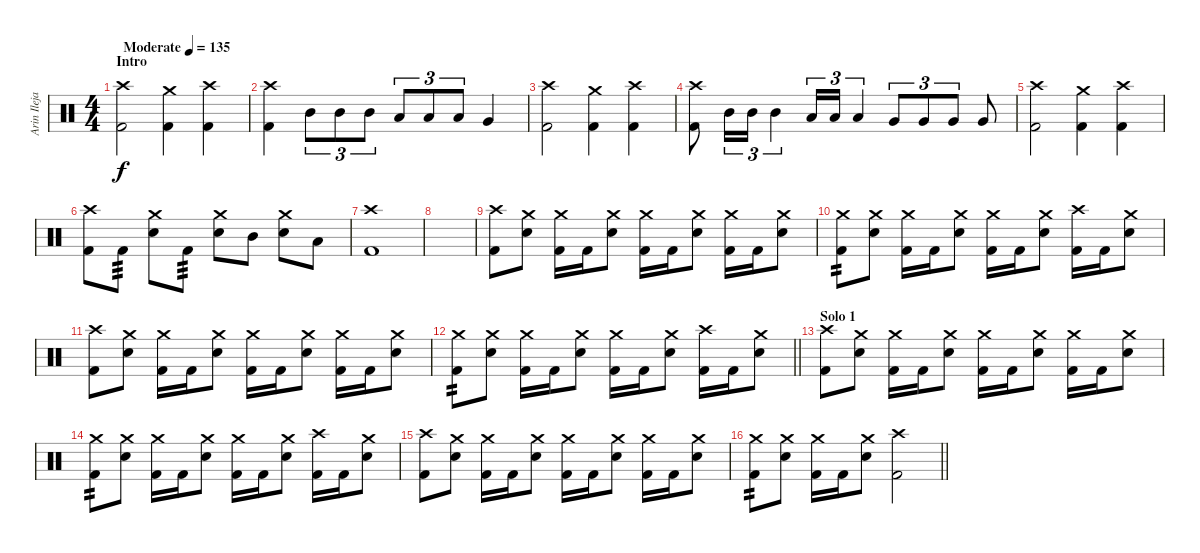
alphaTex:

\track ("Arin Ilejay" "Arin Ileja") {instrument percussion}
\staff {score}
\articulation defaults
\ts (4 4)
\section ("" "Intro")
\tempo (135 "Moderate")
\clef neutral
\ks c
("Crash high (hit)" "Kick (hit) 2").2{dy f} ("Crash medium (hit)" "Kick (hit) 2").4 ("Crash high (hit)" "Kick (hit) 2").4 |
("Crash high (hit)" "Kick (hit) 2").4 "Mid Tom (hit)".8{tu (3 2)} "Mid Tom (hit)".8{tu (3 2)} "Mid Tom (hit)".8{tu (3 2)} "Low Tom (hit)".8{tu (3 2)} "Low Tom (hit)".8{tu (3 2)} "Low Tom (hit)".8{tu (3 2)} "Very Low Tom (hit)".4 |
("Crash high (hit)" "Kick (hit) 2").2 ("Crash medium (hit)" "Kick (hit) 2").4 ("Crash high (hit)" "Kick (hit) 2").4 |
("Crash high (hit)" "Kick (hit) 2").8 "Mid Tom (hit)".16{tu (3 2)} "Mid Tom (hit)".16{tu (3 2)} "Mid Tom (hit)".4{tu (3 2)} "Low Tom (hit)".16{tu (3 2)} "Low Tom (hit)".16{tu (3 2)} "Low Tom (hit)".4{tu (3 2)} "Very Low Tom (hit)".8{tu (3 2)} "Very Low Tom (hit)".8{tu (3 2)} "Very Low Tom (hit)".8{tu (3 2)} "Very Low Tom (hit)".8 |
("Crash high (hit)" "Kick (hit) 2").2 ("Crash medium (hit)" "Kick (hit) 2").4 ("Crash high (hit)" "Kick (hit) 2").4 |
("Crash high (hit)" "Kick (hit) 2").8 "Kick (hit) 2".8{tp 3} ("Crash medium (hit)" "Electric Snare (hit)").8 "Kick (hit) 2".8{tp 3} ("Crash medium (hit)" "Electric Snare (hit)").8 "Mid Tom (hit)".8 ("Crash medium (hit)" "Electric Snare (hit)").8 "Low Tom (hit)".8 |
("Crash high (hit)" "Kick (hit) 2").1 |
|
("Crash high (hit)" "Kick (hit) 2").8 ("Crash medium (hit)" "Electric Snare (hit)").8 ("Crash medium (hit)" "Kick (hit) 2").16 "Kick (hit) 2".16 ("Crash medium (hit)" "Electric Snare (hit)").8 ("Crash medium (hit)" "Kick (hit) 2").16 "Kick (hit) 2".16 ("Crash medium (hit)" "Electric Snare (hit)").8 ("Crash medium (hit)" "Kick (hit) 2").16 "Kick (hit) 2".16 ("Crash medium (hit)" "Electric Snare (hit)").8 |
("Crash medium (hit)" "Kick (hit) 2").8{tp 2} ("Crash medium (hit)" "Electric Snare (hit)").8 ("Crash medium (hit)" "Kick (hit) 2").16 "Kick (hit) 2".16 ("Crash medium (hit)" "Electric Snare (hit)").8 ("Crash medium (hit)" "Kick (hit) 2").16 "Kick (hit) 2".16 ("Crash medium (hit)" "Electric Snare (hit)").8 ("Crash high (hit)" "Kick (hit) 2").16 "Kick (hit) 2".16 ("Crash medium (hit)" "Electric Snare (hit)").8 |
("Crash high (hit)" "Kick (hit) 2").8 ("Crash medium (hit)" "Electric Snare (hit)").8 ("Crash medium (hit)" "Kick (hit) 2").16 "Kick (hit) 2".16 ("Crash medium (hit)" "Electric Snare (hit)").8 ("Crash medium (hit)" "Kick (hit) 2").16 "Kick (hit) 2".16 ("Crash medium (hit)" "Electric Snare (hit)").8 ("Crash medium (hit)" "Kick (hit) 2").16 "Kick (hit) 2".16 ("Crash medium (hit)" "Electric Snare (hit)").8 |
\barLineRight lightlight
("Crash medium (hit)" "Kick (hit) 2").8{tp 2} ("Crash medium (hit)" "Electric Snare (hit)").8 ("Crash medium (hit)" "Kick (hit) 2").16 "Kick (hit) 2".16 ("Crash medium (hit)" "Electric Snare (hit)").8 ("Crash medium (hit)" "Kick (hit) 2").16 "Kick (hit) 2".16 ("Crash medium (hit)" "Electric Snare (hit)").8 ("Crash high (hit)" "Kick (hit) 2").16 "Kick (hit) 2".16 ("Crash medium (hit)" "Electric Snare (hit)").8 |
\section ("" "Solo 1")
("Crash high (hit)" "Kick (hit) 2").8 ("Crash medium (hit)" "Electric Snare (hit)").8 ("Crash medium (hit)" "Kick (hit) 2").16 "Kick (hit) 2".16 ("Crash medium (hit)" "Electric Snare (hit)").8 ("Crash medium (hit)" "Kick (hit) 2").16 "Kick (hit) 2".16 ("Crash medium (hit)" "Electric Snare (hit)").8 ("Crash medium (hit)" "Kick (hit) 2").16 "Kick (hit) 2".16 ("Crash medium (hit)" "Electric Snare (hit)").8 |
("Crash medium (hit)" "Kick (hit) 2").8{tp 2} ("Crash medium (hit)" "Electric Snare (hit)").8 ("Crash medium (hit)" "Kick (hit) 2").16 "Kick (hit) 2".16 ("Crash medium (hit)" "Electric Snare (hit)").8 ("Crash medium (hit)" "Kick (hit) 2").16 "Kick (hit) 2".16 ("Crash medium (hit)" "Electric Snare (hit)").8 ("Crash high (hit)" "Kick (hit) 2").16 "Kick (hit) 2".16 ("Crash medium (hit)" "Electric Snare (hit)").8 |
("Crash high (hit)" "Kick (hit) 2").8 ("Crash medium (hit)" "Electric Snare (hit)").8 ("Crash medium (hit)" "Kick (hit) 2").16 "Kick (hit) 2".16 ("Crash medium (hit)" "Electric Snare (hit)").8 ("Crash medium (hit)" "Kick (hit) 2").16 "Kick (hit) 2".16 ("Crash medium (hit)" "Electric Snare (hit)").8 ("Crash medium (hit)" "Kick (hit) 2").16 "Kick (hit) 2".16 ("Crash medium (hit)" "Electric Snare (hit)").8 |
\barLineRight lightlight
("Crash medium (hit)" "Kick (hit) 2").8{tp 2} ("Crash medium (hit)" "Electric Snare (hit)").8 ("Crash medium (hit)" "Kick (hit) 2").16 "Kick (hit) 2".16 ("Crash medium (hit)" "Electric Snare (hit)").8 ("Crash high (hit)" "Kick (hit) 2").2
